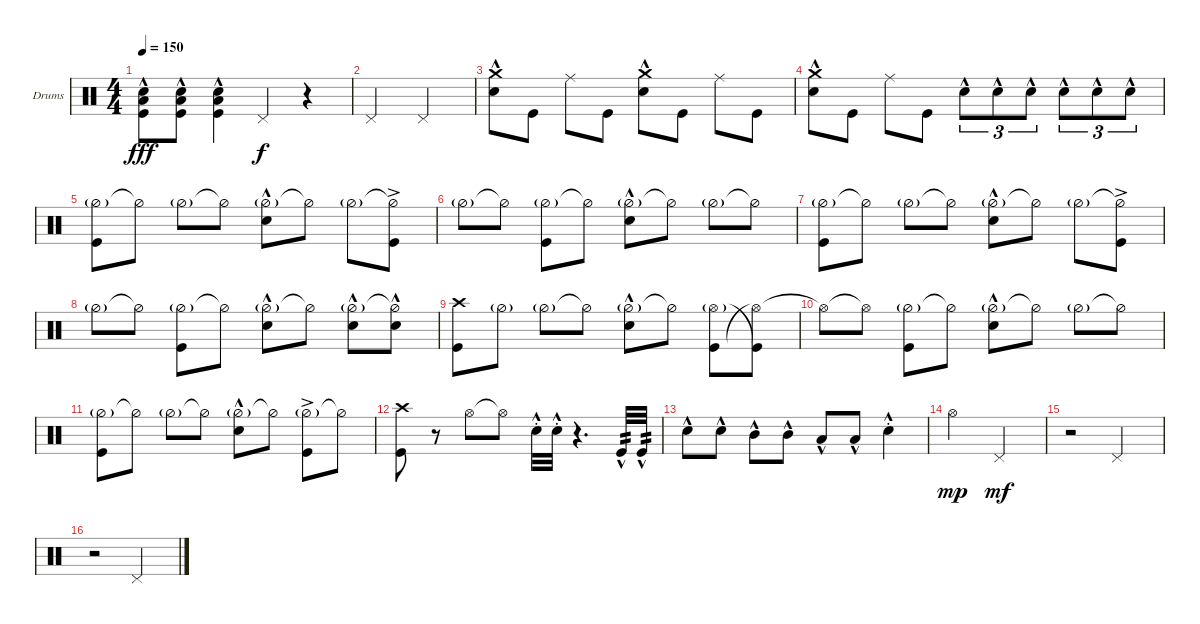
\bracketExtendMode groupsimilarinstruments
\firstSystemTrackNameOrientation horizontal
\otherSystemsTrackNameOrientation horizontal
\track ("Drumkit" "Drums") {instrument percussion}
\staff {score}
\articulation defaults
\ts (4 4)
\tempo 150
\clef neutral
\ks c
("Snare (hit) 2"{hac} "Kick (hit)"{hac} "Low Tom (hit)"{hac}).8{dy fff} ("Snare (hit) 2"{hac} "Kick (hit)"{hac} "Low Tom (hit)"{hac}).8 ("Snare (hit) 2"{hac} "Kick (hit)"{hac} "Low Tom (hit)"{hac}).4 "Pedal Hi-Hat (hit)".4{dy f} r.4 |
"Pedal Hi-Hat (hit)".2 "Pedal Hi-Hat (hit)".2 |
("Snare (hit) 2"{hac} "Crash medium (hit)").8 "Kick (hit)".8 "Ride (middle)".8 "Kick (hit)".8 ("Snare (hit) 2"{hac} "Crash medium (hit)").8 "Kick (hit)".8 "Ride (middle)".8 "Kick (hit)".8 |
("Snare (hit) 2"{hac} "Crash medium (hit)").8 "Kick (hit)".8 "Ride (middle)".8 "Kick (hit)".8 "Snare (hit) 2"{hac}.8{tu (3 2)} "Snare (hit) 2"{hac}.8{tu (3 2)} "Snare (hit) 2"{hac}.8{tu (3 2)} "Snare (hit) 2"{hac}.8{tu (3 2)} "Snare (hit) 2"{hac}.8{tu (3 2)} "Snare (hit) 2"{hac}.8{tu (3 2)} |
("Hi-Hat (half)"{g} "Kick (hit)").8 "Hi-Hat (half)"{t}.8 "Hi-Hat (half)"{g}.8 "Hi-Hat (half)"{t}.8 ("Hi-Hat (half)"{g} "Snare (hit) 2"{hac}).8 "Hi-Hat (half)"{t}.8 "Hi-Hat (half)"{g}.8 ("Hi-Hat (half)"{t} "Kick (hit)"{ac}).8 |
"Hi-Hat (half)"{g}.8 "Hi-Hat (half)"{t}.8 ("Hi-Hat (half)"{g} "Kick (hit)").8 "Hi-Hat (half)"{t}.8 ("Hi-Hat (half)"{g} "Snare (hit) 2"{hac}).8 "Hi-Hat (half)"{t}.8 "Hi-Hat (half)"{g}.8 "Hi-Hat (half)"{t}.8 |
("Hi-Hat (half)"{g} "Kick (hit)").8 "Hi-Hat (half)"{t}.8 "Hi-Hat (half)"{g}.8 "Hi-Hat (half)"{t}.8 ("Hi-Hat (half)"{g} "Snare (hit) 2"{hac}).8 "Hi-Hat (half)"{t}.8 "Hi-Hat (half)"{g}.8 ("Hi-Hat (half)"{t} "Kick (hit)"{ac}).8 |
"Hi-Hat (half)"{g}.8 "Hi-Hat (half)"{t}.8 ("Hi-Hat (half)"{g} "Kick (hit)").8 "Hi-Hat (half)"{t}.8 ("Hi-Hat (half)"{g} "Snare (hit) 2"{hac}).8 "Hi-Hat (half)"{t}.8 ("Hi-Hat (half)"{g} "Snare (hit) 2"{hac}).8 ("Hi-Hat (half)"{t} "Snare (hit) 2"{hac}).8 |
("Kick (hit)" "Crash high (hit)").8 "Hi-Hat (half)"{g}.8 "Hi-Hat (half)"{g}.8 "Hi-Hat (half)"{t}.8 ("Hi-Hat (half)"{g} "Snare (hit) 2"{hac}).8 "Hi-Hat (half)"{t}.8 ("Kick (hit)" "Hi-Hat (open)"{g}).8 ("Hi-Hat (open)"{t} "Kick (hit)"{t}).8 |
"Hi-Hat (open)"{t}.8 "Hi-Hat (open)"{t}.8 ("Hi-Hat (half)"{g} "Kick (hit)").8 "Hi-Hat (half)"{t}.8 ("Hi-Hat (half)"{g} "Snare (hit) 2"{hac}).8 "Hi-Hat (half)"{t}.8 "Hi-Hat (half)"{g}.8 "Hi-Hat (half)"{t}.8 |
("Hi-Hat (half)"{g} "Kick (hit)").8 "Hi-Hat (half)"{t}.8 "Hi-Hat (half)"{g}.8 "Hi-Hat (half)"{t}.8 ("Hi-Hat (half)"{g} "Snare (hit) 2"{hac}).8 "Hi-Hat (half)"{t}.8 ("Hi-Hat (half)"{g} "Kick (hit)"{ac}).8 "Hi-Hat (half)"{t}.8 |
("Kick (hit)" "Crash high (hit)").8 r.8 "Hi-Hat (open)".8 "Hi-Hat (open)"{t}.8 "Snare (hit) 2"{hac st}.32 "Snare (hit) 2"{hac st}.32 r.4{d} "Kick (hit)"{hac}.32{tp 2} "Kick (hit)"{hac}.32{tp 2} |
"Snare (hit) 2"{hac}.8 "Snare (hit) 2"{hac}.8 "Mid Tom (hit)"{hac}.8 "Mid Tom (hit)"{hac}.8 "Low Tom (hit)"{hac}.8 "Low Tom (hit)"{hac}.8 "Snare (hit) 2"{hac st}.4 |
"Hi-Hat (open)".2{dy mp} "Pedal Hi-Hat (hit)".2{dy mf} |
r.2 "Pedal Hi-Hat (hit)".2 |
r.2 "Pedal Hi-Hat (hit)".2
